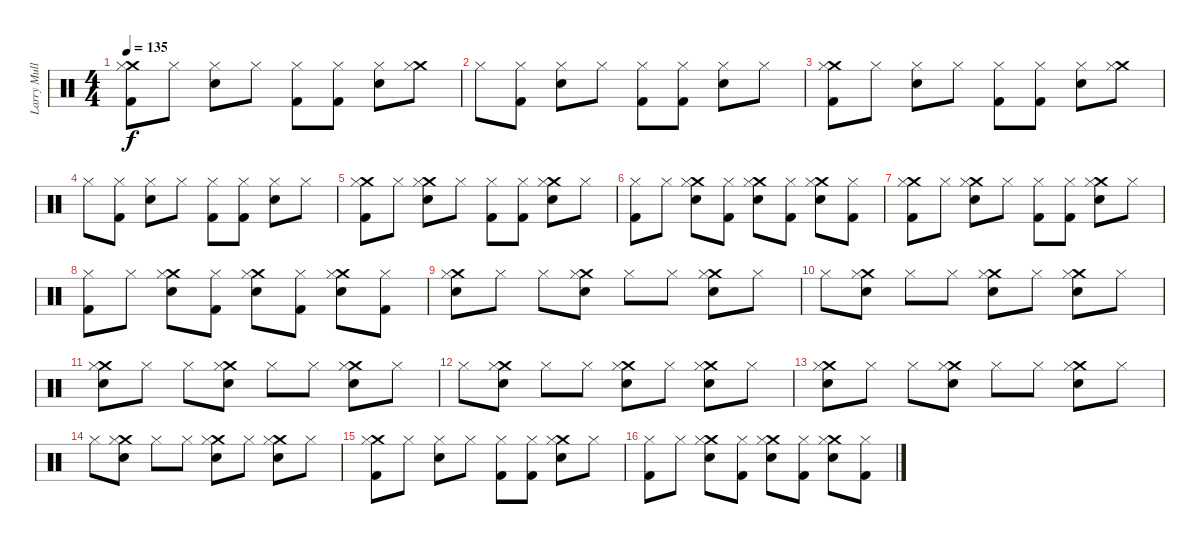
\track ("Larry Mullen Jr." "Larry Mull") {instrument percussion}
\staff {score}
\articulation defaults
\ts (4 4)
\tempo 135
\clef neutral
\ks c
("Kick (hit) 2" "Crash medium (hit)" "Hi-Hat (closed)").8{dy f} "Hi-Hat (closed)".8 ("Electric Snare (hit)" "Hi-Hat (closed)").8 "Hi-Hat (closed)".8 ("Kick (hit) 2" "Hi-Hat (closed)").8 ("Kick (hit) 2" "Hi-Hat (closed)").8 ("Electric Snare (hit)" "Hi-Hat (closed)").8 ("Crash medium (hit)" "Hi-Hat (closed)").8 |
"Hi-Hat (closed)".8 ("Kick (hit) 2" "Hi-Hat (closed)").8 ("Electric Snare (hit)" "Hi-Hat (closed)").8 "Hi-Hat (closed)".8 ("Kick (hit) 2" "Hi-Hat (closed)").8 ("Kick (hit) 2" "Hi-Hat (closed)").8 ("Electric Snare (hit)" "Hi-Hat (closed)").8 "Hi-Hat (closed)".8 |
("Kick (hit) 2" "Crash medium (hit)" "Hi-Hat (closed)").8 "Hi-Hat (closed)".8 ("Electric Snare (hit)" "Hi-Hat (closed)").8 "Hi-Hat (closed)".8 ("Kick (hit) 2" "Hi-Hat (closed)").8 ("Kick (hit) 2" "Hi-Hat (closed)").8 ("Electric Snare (hit)" "Hi-Hat (closed)").8 ("Crash medium (hit)" "Hi-Hat (closed)").8 |
"Hi-Hat (closed)".8 ("Kick (hit) 2" "Hi-Hat (closed)").8 ("Electric Snare (hit)" "Hi-Hat (closed)").8 "Hi-Hat (closed)".8 ("Kick (hit) 2" "Hi-Hat (closed)").8 ("Kick (hit) 2" "Hi-Hat (closed)").8 ("Electric Snare (hit)" "Hi-Hat (closed)").8 "Hi-Hat (closed)".8 |
("Kick (hit) 2" "Crash medium (hit)" "Hi-Hat (closed)").8 "Hi-Hat (closed)".8 ("Electric Snare (hit)" "Crash medium (hit)" "Hi-Hat (closed)").8 "Hi-Hat (closed)".8 ("Kick (hit) 2" "Hi-Hat (closed)").8 ("Kick (hit) 2" "Hi-Hat (closed)").8 ("Electric Snare (hit)" "Crash medium (hit)" "Hi-Hat (closed)").8 "Hi-Hat (closed)".8 |
("Kick (hit) 2" "Hi-Hat (closed)").8 "Hi-Hat (closed)".8 ("Electric Snare (hit)" "Crash medium (hit)" "Hi-Hat (closed)").8 ("Kick (hit) 2" "Hi-Hat (closed)").8 ("Electric Snare (hit)" "Crash medium (hit)" "Hi-Hat (closed)").8 ("Kick (hit) 2" "Hi-Hat (closed)").8 ("Electric Snare (hit)" "Crash medium (hit)" "Hi-Hat (closed)").8 ("Kick (hit) 2" "Hi-Hat (closed)").8 |
("Kick (hit) 2" "Crash medium (hit)" "Hi-Hat (closed)").8 "Hi-Hat (closed)".8 ("Electric Snare (hit)" "Crash medium (hit)" "Hi-Hat (closed)").8 "Hi-Hat (closed)".8 ("Kick (hit) 2" "Hi-Hat (closed)").8 ("Kick (hit) 2" "Hi-Hat (closed)").8 ("Electric Snare (hit)" "Crash medium (hit)" "Hi-Hat (closed)").8 "Hi-Hat (closed)".8 |
("Kick (hit) 2" "Hi-Hat (closed)").8 "Hi-Hat (closed)".8 ("Electric Snare (hit)" "Crash medium (hit)" "Hi-Hat (closed)").8 ("Kick (hit) 2" "Hi-Hat (closed)").8 ("Electric Snare (hit)" "Crash medium (hit)" "Hi-Hat (closed)").8 ("Kick (hit) 2" "Hi-Hat (closed)").8 ("Electric Snare (hit)" "Crash medium (hit)" "Hi-Hat (closed)").8 ("Kick (hit) 2" "Hi-Hat (closed)").8 |
("Electric Snare (hit)" "Crash medium (hit)" "Hi-Hat (closed)").8 "Hi-Hat (closed)".8 "Hi-Hat (closed)".8 ("Electric Snare (hit)" "Crash medium (hit)" "Hi-Hat (closed)").8 "Hi-Hat (closed)".8 "Hi-Hat (closed)".8 ("Electric Snare (hit)" "Crash medium (hit)" "Hi-Hat (closed)").8 "Hi-Hat (closed)".8 |
"Hi-Hat (closed)".8 ("Electric Snare (hit)" "Crash medium (hit)" "Hi-Hat (closed)").8 "Hi-Hat (closed)".8 "Hi-Hat (closed)".8 ("Electric Snare (hit)" "Crash medium (hit)" "Hi-Hat (closed)").8 "Hi-Hat (closed)".8 ("Electric Snare (hit)" "Crash medium (hit)" "Hi-Hat (closed)").8 "Hi-Hat (closed)".8 |
("Electric Snare (hit)" "Crash medium (hit)" "Hi-Hat (closed)").8 "Hi-Hat (closed)".8 "Hi-Hat (closed)".8 ("Electric Snare (hit)" "Crash medium (hit)" "Hi-Hat (closed)").8 "Hi-Hat (closed)".8 "Hi-Hat (closed)".8 ("Electric Snare (hit)" "Crash medium (hit)" "Hi-Hat (closed)").8 "Hi-Hat (closed)".8 |
"Hi-Hat (closed)".8 ("Electric Snare (hit)" "Crash medium (hit)" "Hi-Hat (closed)").8 "Hi-Hat (closed)".8 "Hi-Hat (closed)".8 ("Electric Snare (hit)" "Crash medium (hit)" "Hi-Hat (closed)").8 "Hi-Hat (closed)".8 ("Electric Snare (hit)" "Crash medium (hit)" "Hi-Hat (closed)").8 "Hi-Hat (closed)".8 |
("Electric Snare (hit)" "Crash medium (hit)" "Hi-Hat (closed)").8 "Hi-Hat (closed)".8 "Hi-Hat (closed)".8 ("Electric Snare (hit)" "Crash medium (hit)" "Hi-Hat (closed)").8 "Hi-Hat (closed)".8 "Hi-Hat (closed)".8 ("Electric Snare (hit)" "Crash medium (hit)" "Hi-Hat (closed)").8 "Hi-Hat (closed)".8 |
"Hi-Hat (closed)".8 ("Electric Snare (hit)" "Crash medium (hit)" "Hi-Hat (closed)").8 "Hi-Hat (closed)".8 "Hi-Hat (closed)".8 ("Electric Snare (hit)" "Crash medium (hit)" "Hi-Hat (closed)").8 "Hi-Hat (closed)".8 ("Electric Snare (hit)" "Crash medium (hit)" "Hi-Hat (closed)").8 "Hi-Hat (closed)".8 |
("Kick (hit) 2" "Crash medium (hit)" "Hi-Hat (closed)").8 "Hi-Hat (closed)".8 ("Electric Snare (hit)" "Hi-Hat (closed)").8 "Hi-Hat (closed)".8 ("Kick (hit) 2" "Hi-Hat (closed)").8 ("Kick (hit) 2" "Hi-Hat (closed)").8 ("Electric Snare (hit)" "Crash medium (hit)" "Hi-Hat (closed)").8 "Hi-Hat (closed)".8 |
("Kick (hit) 2" "Hi-Hat (closed)").8 "Hi-Hat (closed)".8 ("Electric Snare (hit)" "Crash medium (hit)" "Hi-Hat (closed)").8 ("Kick (hit) 2" "Hi-Hat (closed)").8 ("Electric Snare (hit)" "Crash medium (hit)" "Hi-Hat (closed)").8 ("Kick (hit) 2" "Hi-Hat (closed)").8 ("Electric Snare (hit)" "Crash medium (hit)" "Hi-Hat (closed)").8 ("Kick (hit) 2" "Hi-Hat (closed)").8
